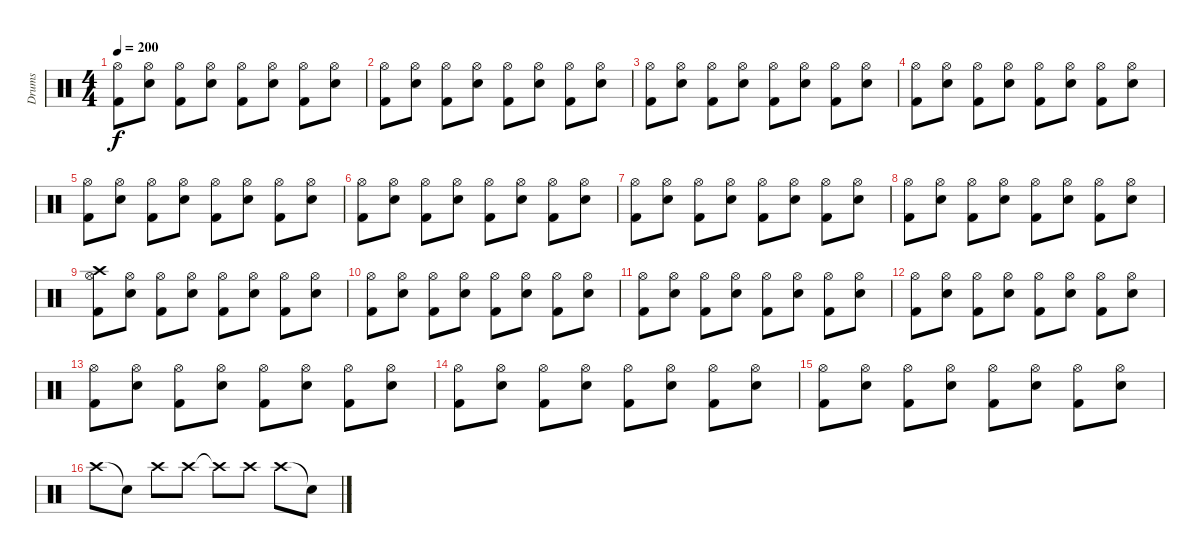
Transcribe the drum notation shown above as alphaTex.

\track ("Drums" "Drums") {instrument percussion}
\staff {score}
\articulation defaults
\ts (4 4)
\tempo 200
\clef neutral
\ks c
("Kick (hit) 2" "Hi-Hat (open)").8{dy f} ("Snare (hit) 2" "Hi-Hat (open)").8 ("Kick (hit) 2" "Hi-Hat (open)").8 ("Snare (hit) 2" "Hi-Hat (open)").8 ("Kick (hit) 2" "Hi-Hat (open)").8 ("Snare (hit) 2" "Hi-Hat (open)").8 ("Kick (hit) 2" "Hi-Hat (open)").8 ("Snare (hit) 2" "Hi-Hat (open)").8 |
("Kick (hit) 2" "Hi-Hat (open)").8 ("Snare (hit) 2" "Hi-Hat (open)").8 ("Kick (hit) 2" "Hi-Hat (open)").8 ("Snare (hit) 2" "Hi-Hat (open)").8 ("Kick (hit) 2" "Hi-Hat (open)").8 ("Snare (hit) 2" "Hi-Hat (open)").8 ("Kick (hit) 2" "Hi-Hat (open)").8 ("Snare (hit) 2" "Hi-Hat (open)").8 |
("Kick (hit) 2" "Hi-Hat (open)").8 ("Snare (hit) 2" "Hi-Hat (open)").8 ("Kick (hit) 2" "Hi-Hat (open)").8 ("Snare (hit) 2" "Hi-Hat (open)").8 ("Kick (hit) 2" "Hi-Hat (open)").8 ("Snare (hit) 2" "Hi-Hat (open)").8 ("Kick (hit) 2" "Hi-Hat (open)").8 ("Snare (hit) 2" "Hi-Hat (open)").8 |
("Kick (hit) 2" "Hi-Hat (open)").8 ("Snare (hit) 2" "Hi-Hat (open)").8 ("Kick (hit) 2" "Hi-Hat (open)").8 ("Snare (hit) 2" "Hi-Hat (open)").8 ("Kick (hit) 2" "Hi-Hat (open)").8 ("Snare (hit) 2" "Hi-Hat (open)").8 ("Kick (hit) 2" "Hi-Hat (open)").8 ("Snare (hit) 2" "Hi-Hat (open)").8 |
("Kick (hit) 2" "Hi-Hat (open)").8 ("Snare (hit) 2" "Hi-Hat (open)").8 ("Kick (hit) 2" "Hi-Hat (open)").8 ("Snare (hit) 2" "Hi-Hat (open)").8 ("Kick (hit) 2" "Hi-Hat (open)").8 ("Snare (hit) 2" "Hi-Hat (open)").8 ("Kick (hit) 2" "Hi-Hat (open)").8 ("Snare (hit) 2" "Hi-Hat (open)").8 |
("Kick (hit) 2" "Hi-Hat (open)").8 ("Snare (hit) 2" "Hi-Hat (open)").8 ("Kick (hit) 2" "Hi-Hat (open)").8 ("Snare (hit) 2" "Hi-Hat (open)").8 ("Kick (hit) 2" "Hi-Hat (open)").8 ("Snare (hit) 2" "Hi-Hat (open)").8 ("Kick (hit) 2" "Hi-Hat (open)").8 ("Snare (hit) 2" "Hi-Hat (open)").8 |
("Kick (hit) 2" "Hi-Hat (open)").8 ("Snare (hit) 2" "Hi-Hat (open)").8 ("Kick (hit) 2" "Hi-Hat (open)").8 ("Snare (hit) 2" "Hi-Hat (open)").8 ("Kick (hit) 2" "Hi-Hat (open)").8 ("Snare (hit) 2" "Hi-Hat (open)").8 ("Kick (hit) 2" "Hi-Hat (open)").8 ("Snare (hit) 2" "Hi-Hat (open)").8 |
("Kick (hit) 2" "Hi-Hat (open)").8 ("Snare (hit) 2" "Hi-Hat (open)").8 ("Kick (hit) 2" "Hi-Hat (open)").8 ("Snare (hit) 2" "Hi-Hat (open)").8 ("Kick (hit) 2" "Hi-Hat (open)").8 ("Snare (hit) 2" "Hi-Hat (open)").8 ("Kick (hit) 2" "Hi-Hat (open)").8 ("Snare (hit) 2" "Hi-Hat (open)").8 |
("Kick (hit) 2" "Hi-Hat (open)" "Crash high (hit)").8 ("Snare (hit) 2" "Hi-Hat (open)").8 ("Kick (hit) 2" "Hi-Hat (open)").8 ("Snare (hit) 2" "Hi-Hat (open)").8 ("Kick (hit) 2" "Hi-Hat (open)").8 ("Snare (hit) 2" "Hi-Hat (open)").8 ("Kick (hit) 2" "Hi-Hat (open)").8 ("Snare (hit) 2" "Hi-Hat (open)").8 |
("Kick (hit) 2" "Hi-Hat (open)").8 ("Snare (hit) 2" "Hi-Hat (open)").8 ("Kick (hit) 2" "Hi-Hat (open)").8 ("Snare (hit) 2" "Hi-Hat (open)").8 ("Kick (hit) 2" "Hi-Hat (open)").8 ("Snare (hit) 2" "Hi-Hat (open)").8 ("Kick (hit) 2" "Hi-Hat (open)").8 ("Snare (hit) 2" "Hi-Hat (open)").8 |
("Kick (hit) 2" "Hi-Hat (open)").8 ("Snare (hit) 2" "Hi-Hat (open)").8 ("Kick (hit) 2" "Hi-Hat (open)").8 ("Snare (hit) 2" "Hi-Hat (open)").8 ("Kick (hit) 2" "Hi-Hat (open)").8 ("Snare (hit) 2" "Hi-Hat (open)").8 ("Kick (hit) 2" "Hi-Hat (open)").8 ("Snare (hit) 2" "Hi-Hat (open)").8 |
("Kick (hit) 2" "Hi-Hat (open)").8 ("Snare (hit) 2" "Hi-Hat (open)").8 ("Kick (hit) 2" "Hi-Hat (open)").8 ("Snare (hit) 2" "Hi-Hat (open)").8 ("Kick (hit) 2" "Hi-Hat (open)").8 ("Snare (hit) 2" "Hi-Hat (open)").8 ("Kick (hit) 2" "Hi-Hat (open)").8 ("Snare (hit) 2" "Hi-Hat (open)").8 |
("Kick (hit) 2" "Hi-Hat (open)").8 ("Snare (hit) 2" "Hi-Hat (open)").8 ("Kick (hit) 2" "Hi-Hat (open)").8 ("Snare (hit) 2" "Hi-Hat (open)").8 ("Kick (hit) 2" "Hi-Hat (open)").8 ("Snare (hit) 2" "Hi-Hat (open)").8 ("Kick (hit) 2" "Hi-Hat (open)").8 ("Snare (hit) 2" "Hi-Hat (open)").8 |
("Kick (hit) 2" "Hi-Hat (open)").8 ("Snare (hit) 2" "Hi-Hat (open)").8 ("Kick (hit) 2" "Hi-Hat (open)").8 ("Snare (hit) 2" "Hi-Hat (open)").8 ("Kick (hit) 2" "Hi-Hat (open)").8 ("Snare (hit) 2" "Hi-Hat (open)").8 ("Kick (hit) 2" "Hi-Hat (open)").8 ("Snare (hit) 2" "Hi-Hat (open)").8 |
("Kick (hit) 2" "Hi-Hat (open)").8 ("Snare (hit) 2" "Hi-Hat (open)").8 ("Kick (hit) 2" "Hi-Hat (open)").8 ("Snare (hit) 2" "Hi-Hat (open)").8 ("Kick (hit) 2" "Hi-Hat (open)").8 ("Snare (hit) 2" "Hi-Hat (open)").8 ("Kick (hit) 2" "Hi-Hat (open)").8 ("Snare (hit) 2" "Hi-Hat (open)").8 |
"Crash high (hit)".8 "Snare (hit)"{t}.8 "Crash high (hit)".8 "Crash high (hit)".8 "Crash high (hit)"{t}.8 "Crash high (hit)".8 "Crash high (hit)".8 "Snare (hit)"{t}.8
